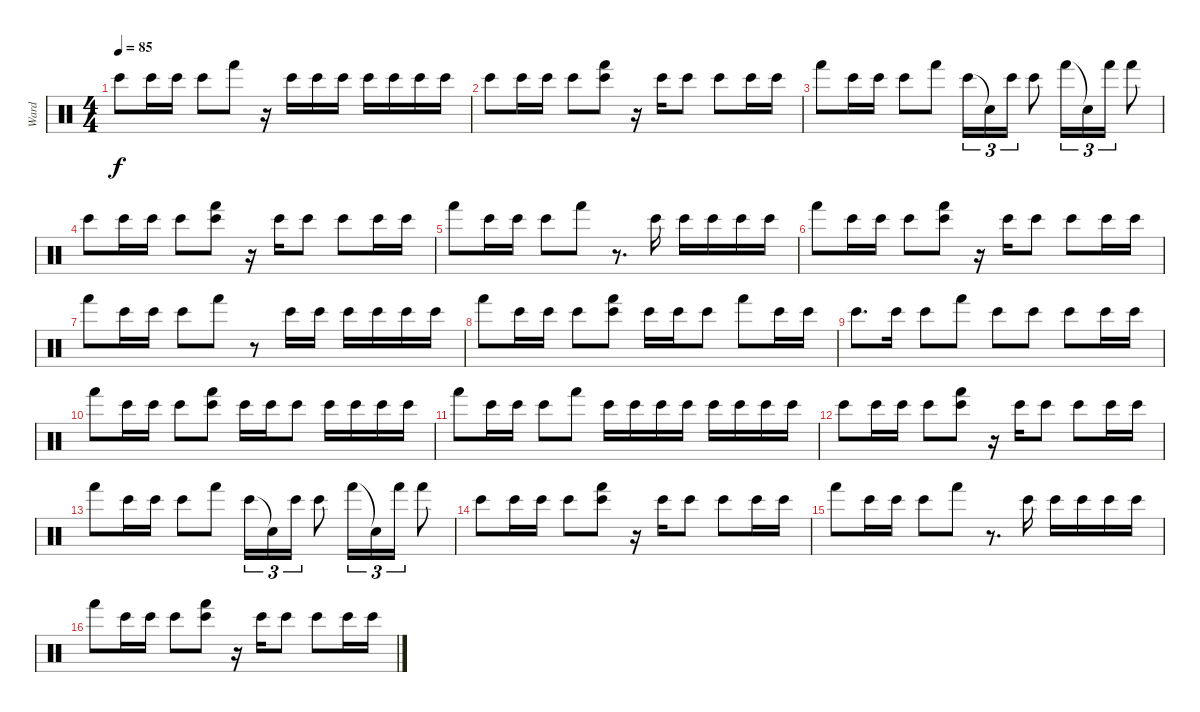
\track ("Ward" "Ward") {instrument percussion}
\staff {score}
\articulation defaults
\ts (4 4)
\tempo 85
\clef neutral
\ks c "Bongo High (hit)".8{dy f} "Bongo High (hit)".16 "Bongo High (hit)".16 "Bongo High (hit)".8 "Hand (hit)".8
r.16 "Bongo High (hit)".16 "Bongo High (hit)".16 "Bongo High (hit)".16 "Bongo High (hit)".16 "Bongo High (hit)".16 "Bongo High (hit)".16 "Bongo High (hit)".16 |
"Bongo High (hit)".8 "Bongo High (hit)".16 "Bongo High (hit)".16 "Bongo High (hit)".8 ("Bongo High (hit)" "Hand (hit)").8 r.16 "Bongo High (hit)".16 "Bongo High (hit)".8 "Bongo High (hit)".8 "Bongo High (hit)".16 "Bongo High (hit)".16 |
"Hand (hit)".8 "Bongo High (hit)".16 "Bongo High (hit)".16 "Bongo High (hit)".8 "Hand (hit)".8 "Bongo High (hit)".16{tu (3 2)} "Snare (hit)"{t}.16{tu (3 2)} "Bongo High (hit)".16{tu (3 2)} "Bongo High (hit)".8 "Hand (hit)".16{tu (3 2)} "Snare (hit)"{t}.16{tu (3 2)} "Hand (hit)".16{tu (3 2)} "Hand (hit)".8 |
"Bongo High (hit)".8 "Bongo High (hit)".16 "Bongo High (hit)".16 "Bongo High (hit)".8 ("Bongo High (hit)" "Hand (hit)").8 r.16 "Bongo High (hit)".16 "Bongo High (hit)".8 "Bongo High (hit)".8 "Bongo High (hit)".16 "Bongo High (hit)".16 |
"Hand (hit)".8 "Bongo High (hit)".16 "Bongo High (hit)".16 "Bongo High (hit)".8 "Hand (hit)".8 r.8{d} "Bongo High (hit)".16 "Bongo High (hit)".16 "Bongo High (hit)".16 "Bongo High (hit)".16 "Bongo High (hit)".16 |
"Hand (hit)".8 "Bongo High (hit)".16 "Bongo High (hit)".16 "Bongo High (hit)".8 ("Bongo High (hit)" "Hand (hit)").8 r.16 "Bongo High (hit)".16 "Bongo High (hit)".8 "Bongo High (hit)".8 "Bongo High (hit)".16 "Bongo High (hit)".16 |
"Hand (hit)".8 "Bongo High (hit)".16 "Bongo High (hit)".16 "Bongo High (hit)".8 "Hand (hit)".8 r.8 "Bongo High (hit)".16 "Bongo High (hit)".16 "Bongo High (hit)".16 "Bongo High (hit)".16 "Bongo High (hit)".16 "Bongo High (hit)".16 |
"Hand (hit)".8 "Bongo High (hit)".16 "Bongo High (hit)".16 "Bongo High (hit)".8 ("Bongo High (hit)" "Hand (hit)").8 "Bongo High (hit)".16 "Bongo High (hit)".16 "Bongo High (hit)".8 "Hand (hit)".8 "Bongo High (hit)".16 "Bongo High (hit)".16 |
"Bongo High (hit)".8{d} "Bongo High (hit)".16 "Bongo High (hit)".8 "Hand (hit)".8 "Bongo High (hit)".8 "Bongo High (hit)".8 "Bongo High (hit)".8 "Bongo High (hit)".16 "Bongo High (hit)".16 |
"Hand (hit)".8 "Bongo High (hit)".16 "Bongo High (hit)".16 "Bongo High (hit)".8 ("Bongo High (hit)" "Hand (hit)").8 "Bongo High (hit)".16 "Bongo High (hit)".16 "Bongo High (hit)".8 "Bongo High (hit)".16 "Bongo High (hit)".16 "Bongo High (hit)".16 "Bongo High (hit)".16 |
"Hand (hit)".8 "Bongo High (hit)".16 "Bongo High (hit)".16 "Bongo High (hit)".8 "Hand (hit)".8 "Bongo High (hit)".16 "Bongo High (hit)".16 "Bongo High (hit)".16 "Bongo High (hit)".16 "Bongo High (hit)".16 "Bongo High (hit)".16 "Bongo High (hit)".16 "Bongo High (hit)".16 |
"Bongo High (hit)".8 "Bongo High (hit)".16 "Bongo High (hit)".16 "Bongo High (hit)".8 ("Bongo High (hit)" "Hand (hit)").8 r.16 "Bongo High (hit)".16 "Bongo High (hit)".8 "Bongo High (hit)".8 "Bongo High (hit)".16 "Bongo High (hit)".16 |
"Hand (hit)".8 "Bongo High (hit)".16 "Bongo High (hit)".16 "Bongo High (hit)".8 "Hand (hit)".8 "Bongo High (hit)".16{tu (3 2)} "Snare (hit)"{t}.16{tu (3 2)} "Bongo High (hit)".16{tu (3 2)} "Bongo High (hit)".8 "Hand (hit)".16{tu (3 2)} "Snare (hit)"{t}.16{tu (3 2)} "Hand (hit)".16{tu (3 2)} "Hand (hit)".8 |
"Bongo High (hit)".8 "Bongo High (hit)".16 "Bongo High (hit)".16 "Bongo High (hit)".8 ("Bongo High (hit)" "Hand (hit)").8 r.16 "Bongo High (hit)".16 "Bongo High (hit)".8 "Bongo High (hit)".8 "Bongo High (hit)".16 "Bongo High (hit)".16 |
"Hand (hit)".8 "Bongo High (hit)".16 "Bongo High (hit)".16 "Bongo High (hit)".8 "Hand (hit)".8 r.8{d} "Bongo High (hit)".16 "Bongo High (hit)".16 "Bongo High (hit)".16 "Bongo High (hit)".16 "Bongo High (hit)".16 |
"Hand (hit)".8 "Bongo High (hit)".16 "Bongo High (hit)".16 "Bongo High (hit)".8 ("Bongo High (hit)" "Hand (hit)").8 r.16 "Bongo High (hit)".16 "Bongo High (hit)".8 "Bongo High (hit)".8 "Bongo High (hit)".16 "Bongo High (hit)".16
